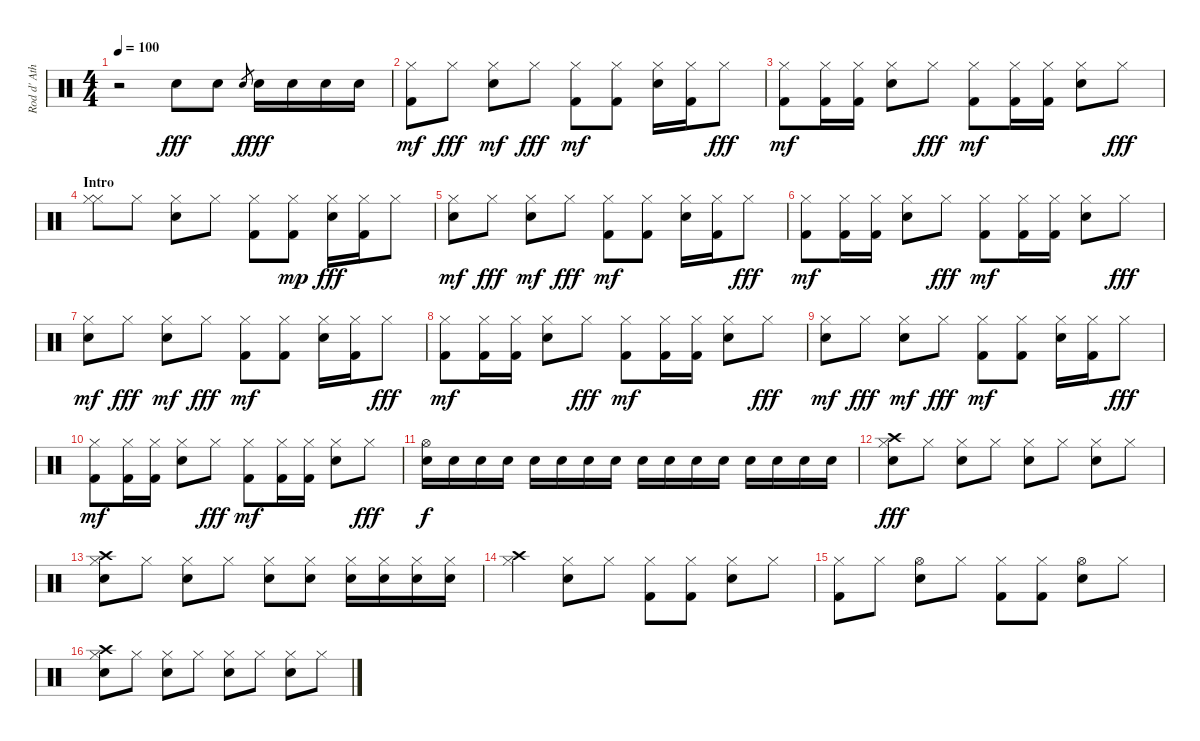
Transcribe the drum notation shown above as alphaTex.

\track ("Rod d' Ath" "Rod d' Ath") {instrument percussion}
\staff {score}
\articulation defaults
\ts (4 4)
\tempo 100
\clef neutral
\ks c
r.2{dy fff} "Snare (hit) 2".8 "Snare (hit) 2".8 "Snare (hit) 2".8{gr dy f} "Snare (hit) 2".16{dy fff} "Snare (hit) 2".16 "Snare (hit) 2".16 "Snare (hit) 2".16 |
("Kick (hit) 2" "Hi-Hat (closed)").8{dy mf} "Hi-Hat (closed)".8{dy fff} ("Snare (hit) 2" "Hi-Hat (closed)").8{dy mf} "Hi-Hat (closed)".8{dy fff} ("Kick (hit) 2" "Hi-Hat (closed)").8{dy mf} ("Kick (hit) 2" "Hi-Hat (closed)").8 ("Snare (hit) 2" "Hi-Hat (closed)").16 ("Kick (hit) 2" "Hi-Hat (closed)").16 "Hi-Hat (closed)".8{dy fff} |
("Kick (hit) 2" "Hi-Hat (closed)").8{dy mf} ("Kick (hit) 2" "Hi-Hat (closed)").16 ("Kick (hit) 2" "Hi-Hat (closed)").16 ("Snare (hit) 2" "Hi-Hat (closed)").8 "Hi-Hat (closed)".8{dy fff} ("Kick (hit) 2" "Hi-Hat (closed)").8{dy mf} ("Kick (hit) 2" "Hi-Hat (closed)").16 ("Kick (hit) 2" "Hi-Hat (closed)").16 ("Snare (hit) 2" "Hi-Hat (closed)").8 "Hi-Hat (closed)".8{dy fff} |
\section ("" "Intro")
("Hi-Hat (closed)" "Hi-Hat (closed)").8 "Hi-Hat (closed)".8 ("Snare (hit) 2" "Hi-Hat (closed)").8 "Hi-Hat (closed)".8 ("Kick (hit) 2" "Hi-Hat (closed)").8 ("Kick (hit) 2" "Hi-Hat (closed)").8{dy mp} ("Snare (hit) 2" "Hi-Hat (closed)").16{dy fff} ("Kick (hit) 2" "Hi-Hat (closed)").16 "Hi-Hat (closed)".8 |
("Snare (hit) 2" "Hi-Hat (closed)").8{dy mf} "Hi-Hat (closed)".8{dy fff} ("Snare (hit) 2" "Hi-Hat (closed)").8{dy mf} "Hi-Hat (closed)".8{dy fff} ("Kick (hit) 2" "Hi-Hat (closed)").8{dy mf} ("Kick (hit) 2" "Hi-Hat (closed)").8 ("Snare (hit) 2" "Hi-Hat (closed)").16 ("Kick (hit) 2" "Hi-Hat (closed)").16 "Hi-Hat (closed)".8{dy fff} |
("Kick (hit) 2" "Hi-Hat (closed)").8{dy mf} ("Kick (hit) 2" "Hi-Hat (closed)").16 ("Kick (hit) 2" "Hi-Hat (closed)").16 ("Snare (hit) 2" "Hi-Hat (closed)").8 "Hi-Hat (closed)".8{dy fff} ("Kick (hit) 2" "Hi-Hat (closed)").8{dy mf} ("Kick (hit) 2" "Hi-Hat (closed)").16 ("Kick (hit) 2" "Hi-Hat (closed)").16 ("Snare (hit) 2" "Hi-Hat (closed)").8 "Hi-Hat (closed)".8{dy fff} |
("Snare (hit) 2" "Hi-Hat (closed)").8{dy mf} "Hi-Hat (closed)".8{dy fff} ("Snare (hit) 2" "Hi-Hat (closed)").8{dy mf} "Hi-Hat (closed)".8{dy fff} ("Kick (hit) 2" "Hi-Hat (closed)").8{dy mf} ("Kick (hit) 2" "Hi-Hat (closed)").8 ("Snare (hit) 2" "Hi-Hat (closed)").16 ("Kick (hit) 2" "Hi-Hat (closed)").16 "Hi-Hat (closed)".8{dy fff} |
("Kick (hit) 2" "Hi-Hat (closed)").8{dy mf} ("Kick (hit) 2" "Hi-Hat (closed)").16 ("Kick (hit) 2" "Hi-Hat (closed)").16 ("Snare (hit) 2" "Hi-Hat (closed)").8 "Hi-Hat (closed)".8{dy fff} ("Kick (hit) 2" "Hi-Hat (closed)").8{dy mf} ("Kick (hit) 2" "Hi-Hat (closed)").16 ("Kick (hit) 2" "Hi-Hat (closed)").16 ("Snare (hit) 2" "Hi-Hat (closed)").8 "Hi-Hat (closed)".8{dy fff} |
("Snare (hit) 2" "Hi-Hat (closed)").8{dy mf} "Hi-Hat (closed)".8{dy fff} ("Snare (hit) 2" "Hi-Hat (closed)").8{dy mf} "Hi-Hat (closed)".8{dy fff} ("Kick (hit) 2" "Hi-Hat (closed)").8{dy mf} ("Kick (hit) 2" "Hi-Hat (closed)").8 ("Snare (hit) 2" "Hi-Hat (closed)").16 ("Kick (hit) 2" "Hi-Hat (closed)").16 "Hi-Hat (closed)".8{dy fff} |
("Kick (hit) 2" "Hi-Hat (closed)").8{dy mf} ("Kick (hit) 2" "Hi-Hat (closed)").16 ("Kick (hit) 2" "Hi-Hat (closed)").16 ("Snare (hit) 2" "Hi-Hat (closed)").8 "Hi-Hat (closed)".8{dy fff} ("Kick (hit) 2" "Hi-Hat (closed)").8{dy mf} ("Kick (hit) 2" "Hi-Hat (closed)").16 ("Kick (hit) 2" "Hi-Hat (closed)").16 ("Snare (hit) 2" "Hi-Hat (closed)").8 "Hi-Hat (closed)".8{dy fff} |
("Snare (hit) 2" "Hi-Hat (open)").16{dy f volume 10} "Snare (hit) 2".16 "Snare (hit) 2".16 "Snare (hit) 2".16 "Snare (hit) 2".16 "Snare (hit) 2".16 "Snare (hit) 2".16 "Snare (hit) 2".16 "Snare (hit) 2".16{volume 16} "Snare (hit) 2".16{volume 10} "Snare (hit) 2".16 "Snare (hit) 2".16 "Snare (hit) 2".16 "Snare (hit) 2".16 "Snare (hit) 2".16 "Snare (hit) 2".16 |
("Snare (hit) 2" "Hi-Hat (closed)" "Crash high (hit)").8{dy fff volume 16} "Hi-Hat (closed)".8 ("Snare (hit) 2" "Hi-Hat (closed)").8 "Hi-Hat (closed)".8 ("Snare (hit) 2" "Hi-Hat (closed)").8 "Hi-Hat (closed)".8 ("Snare (hit) 2" "Hi-Hat (closed)").8 "Hi-Hat (closed)".8 |
("Snare (hit) 2" "Hi-Hat (closed)" "Crash high (hit)").8 "Hi-Hat (closed)".8 ("Snare (hit) 2" "Hi-Hat (closed)").8 "Hi-Hat (closed)".8 ("Snare (hit) 2" "Hi-Hat (closed)").8 ("Snare (hit) 2" "Hi-Hat (closed)").8 ("Snare (hit) 2" "Hi-Hat (closed)").16 ("Snare (hit) 2" "Hi-Hat (closed)").16 ("Snare (hit) 2" "Hi-Hat (closed)").16 ("Snare (hit) 2" "Hi-Hat (closed)").16 |
("Crash high (hit)" "Hi-Hat (closed)").4 ("Snare (hit) 2" "Hi-Hat (closed)").8 "Hi-Hat (closed)".8 ("Kick (hit) 2" "Hi-Hat (closed)").8 ("Kick (hit) 2" "Hi-Hat (closed)").8 ("Snare (hit) 2" "Hi-Hat (closed)").8 "Hi-Hat (closed)".8 |
("Kick (hit) 2" "Hi-Hat (closed)").8 "Hi-Hat (closed)".8 ("Hi-Hat (open)" "Snare (hit) 2").8 "Hi-Hat (closed)".8 ("Kick (hit) 2" "Hi-Hat (closed)").8 ("Kick (hit) 2" "Hi-Hat (closed)").8 ("Snare (hit) 2" "Hi-Hat (open)").8 "Hi-Hat (closed)".8 |
("Snare (hit) 2" "Hi-Hat (closed)" "Crash high (hit)").8{volume 16} "Hi-Hat (closed)".8 ("Snare (hit) 2" "Hi-Hat (closed)").8 "Hi-Hat (closed)".8 ("Snare (hit) 2" "Hi-Hat (closed)").8 "Hi-Hat (closed)".8 ("Snare (hit) 2" "Hi-Hat (closed)").8 "Hi-Hat (closed)".8
